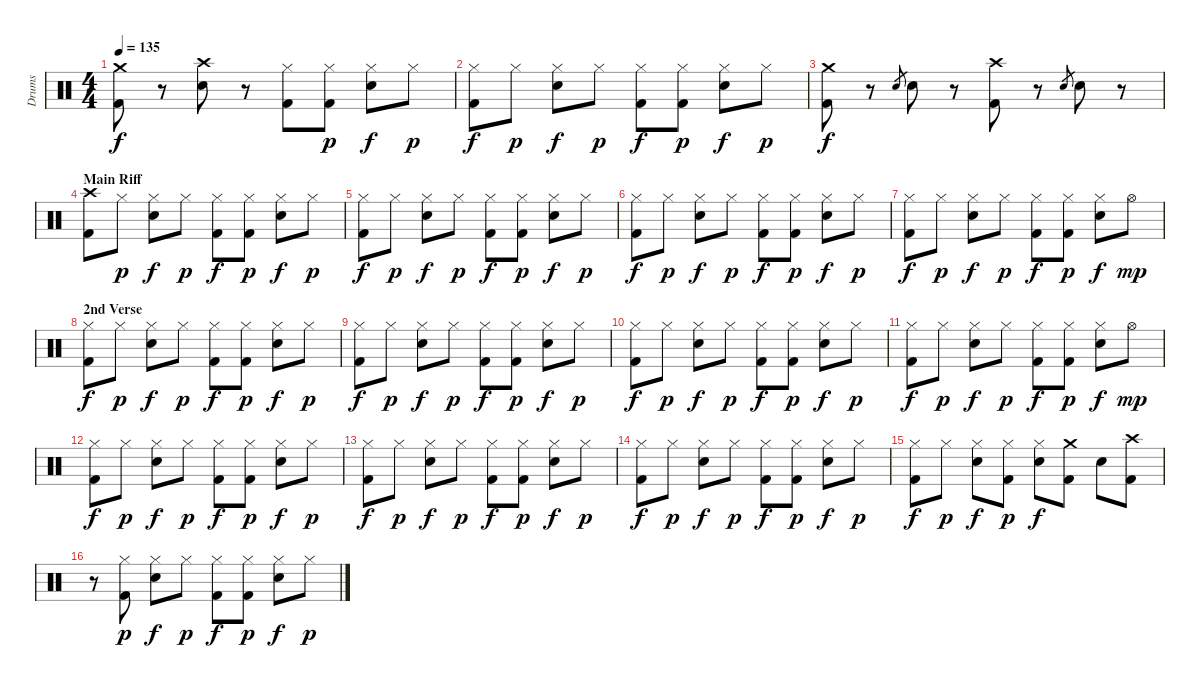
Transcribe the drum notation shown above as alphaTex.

\track ("Drums" "Drums") {instrument percussion}
\staff {score}
\articulation defaults
\ts (4 4)
\tempo 135
\clef neutral
\ks c
("Crash medium (hit)" "Kick (hit) 2").8{dy f} r.8 ("Crash high (hit)" "Snare (hit) 2").8 r.8 ("Hi-Hat (closed)" "Kick (hit) 2").8 ("Hi-Hat (closed)" "Kick (hit) 2").8{dy p} ("Hi-Hat (closed)" "Snare (hit) 2").8{dy f} "Hi-Hat (closed)".8{dy p} |
("Hi-Hat (closed)" "Kick (hit) 2").8{dy f} "Hi-Hat (closed)".8{dy p} ("Hi-Hat (closed)" "Snare (hit) 2").8{dy f} "Hi-Hat (closed)".8{dy p} ("Hi-Hat (closed)" "Kick (hit) 2").8{dy f} ("Hi-Hat (closed)" "Kick (hit) 2").8{dy p} ("Hi-Hat (closed)" "Snare (hit) 2").8{dy f} "Hi-Hat (closed)".8{dy p} |
("Crash medium (hit)" "Kick (hit) 2").8{dy f} r.8 "Snare (hit) 2".8{gr} "Snare (hit) 2".8 r.8 ("Crash high (hit)" "Kick (hit) 2").8 r.8 "Snare (hit) 2".8{gr} "Snare (hit) 2".8 r.8 |
\section ("" "Main Riff")
("Crash high (hit)" "Kick (hit) 2").8 "Hi-Hat (closed)".8{dy p} ("Hi-Hat (closed)" "Snare (hit) 2").8{dy f} "Hi-Hat (closed)".8{dy p} ("Hi-Hat (closed)" "Kick (hit) 2").8{dy f} ("Hi-Hat (closed)" "Kick (hit) 2").8{dy p} ("Hi-Hat (closed)" "Snare (hit) 2").8{dy f} "Hi-Hat (closed)".8{dy p} |
("Hi-Hat (closed)" "Kick (hit) 2").8{dy f} "Hi-Hat (closed)".8{dy p} ("Hi-Hat (closed)" "Snare (hit) 2").8{dy f} "Hi-Hat (closed)".8{dy p} ("Hi-Hat (closed)" "Kick (hit) 2").8{dy f} ("Hi-Hat (closed)" "Kick (hit) 2").8{dy p} ("Hi-Hat (closed)" "Snare (hit) 2").8{dy f} "Hi-Hat (closed)".8{dy p} |
("Hi-Hat (closed)" "Kick (hit) 2").8{dy f} "Hi-Hat (closed)".8{dy p} ("Hi-Hat (closed)" "Snare (hit) 2").8{dy f} "Hi-Hat (closed)".8{dy p} ("Hi-Hat (closed)" "Kick (hit) 2").8{dy f} ("Hi-Hat (closed)" "Kick (hit) 2").8{dy p} ("Hi-Hat (closed)" "Snare (hit) 2").8{dy f} "Hi-Hat (closed)".8{dy p} |
("Hi-Hat (closed)" "Kick (hit) 2").8{dy f} "Hi-Hat (closed)".8{dy p} ("Hi-Hat (closed)" "Snare (hit) 2").8{dy f} "Hi-Hat (closed)".8{dy p} ("Hi-Hat (closed)" "Kick (hit) 2").8{dy f} ("Hi-Hat (closed)" "Kick (hit) 2").8{dy p} ("Hi-Hat (closed)" "Snare (hit) 2").8{dy f} "Hi-Hat (open)".8{dy mp} |
\section ("" "2nd Verse")
("Hi-Hat (closed)" "Kick (hit) 2").8{dy f} "Hi-Hat (closed)".8{dy p} ("Hi-Hat (closed)" "Snare (hit) 2").8{dy f} "Hi-Hat (closed)".8{dy p} ("Hi-Hat (closed)" "Kick (hit) 2").8{dy f} ("Hi-Hat (closed)" "Kick (hit) 2").8{dy p} ("Hi-Hat (closed)" "Snare (hit) 2").8{dy f} "Hi-Hat (closed)".8{dy p} |
("Hi-Hat (closed)" "Kick (hit) 2").8{dy f} "Hi-Hat (closed)".8{dy p} ("Hi-Hat (closed)" "Snare (hit) 2").8{dy f} "Hi-Hat (closed)".8{dy p} ("Hi-Hat (closed)" "Kick (hit) 2").8{dy f} ("Hi-Hat (closed)" "Kick (hit) 2").8{dy p} ("Hi-Hat (closed)" "Snare (hit) 2").8{dy f} "Hi-Hat (closed)".8{dy p} |
("Hi-Hat (closed)" "Kick (hit) 2").8{dy f} "Hi-Hat (closed)".8{dy p} ("Hi-Hat (closed)" "Snare (hit) 2").8{dy f} "Hi-Hat (closed)".8{dy p} ("Hi-Hat (closed)" "Kick (hit) 2").8{dy f} ("Hi-Hat (closed)" "Kick (hit) 2").8{dy p} ("Hi-Hat (closed)" "Snare (hit) 2").8{dy f} "Hi-Hat (closed)".8{dy p} |
("Hi-Hat (closed)" "Kick (hit) 2").8{dy f} "Hi-Hat (closed)".8{dy p} ("Hi-Hat (closed)" "Snare (hit) 2").8{dy f} "Hi-Hat (closed)".8{dy p} ("Hi-Hat (closed)" "Kick (hit) 2").8{dy f} ("Hi-Hat (closed)" "Kick (hit) 2").8{dy p} ("Hi-Hat (closed)" "Snare (hit) 2").8{dy f} "Hi-Hat (open)".8{dy mp} |
("Hi-Hat (closed)" "Kick (hit) 2").8{dy f} "Hi-Hat (closed)".8{dy p} ("Hi-Hat (closed)" "Snare (hit) 2").8{dy f} "Hi-Hat (closed)".8{dy p} ("Hi-Hat (closed)" "Kick (hit) 2").8{dy f} ("Hi-Hat (closed)" "Kick (hit) 2").8{dy p} ("Hi-Hat (closed)" "Snare (hit) 2").8{dy f} "Hi-Hat (closed)".8{dy p} |
("Hi-Hat (closed)" "Kick (hit) 2").8{dy f} "Hi-Hat (closed)".8{dy p} ("Hi-Hat (closed)" "Snare (hit) 2").8{dy f} "Hi-Hat (closed)".8{dy p} ("Hi-Hat (closed)" "Kick (hit) 2").8{dy f} ("Hi-Hat (closed)" "Kick (hit) 2").8{dy p} ("Hi-Hat (closed)" "Snare (hit) 2").8{dy f} "Hi-Hat (closed)".8{dy p} |
("Hi-Hat (closed)" "Kick (hit) 2").8{dy f} "Hi-Hat (closed)".8{dy p} ("Hi-Hat (closed)" "Snare (hit) 2").8{dy f} "Hi-Hat (closed)".8{dy p} ("Hi-Hat (closed)" "Kick (hit) 2").8{dy f} ("Hi-Hat (closed)" "Kick (hit) 2").8{dy p} ("Hi-Hat (closed)" "Snare (hit) 2").8{dy f} "Hi-Hat (closed)".8{dy p} |
("Hi-Hat (closed)" "Kick (hit) 2").8{dy f} "Hi-Hat (closed)".8{dy p} ("Hi-Hat (closed)" "Snare (hit) 2").8{dy f} ("Hi-Hat (closed)" "Kick (hit) 2").8{dy p} ("Hi-Hat (closed)" "Snare (hit) 2").8{dy f} ("Crash medium (hit)" "Kick (hit) 2").8 "Snare (hit) 2".8 ("Crash high (hit)" "Kick (hit) 2").8 |
r.8 ("Hi-Hat (closed)" "Kick (hit) 2").8{dy p} ("Hi-Hat (closed)" "Snare (hit) 2").8{dy f} "Hi-Hat (closed)".8{dy p} ("Hi-Hat (closed)" "Kick (hit) 2").8{dy f} ("Hi-Hat (closed)" "Kick (hit) 2").8{dy p} ("Hi-Hat (closed)" "Snare (hit) 2").8{dy f} "Hi-Hat (closed)".8{dy p}
